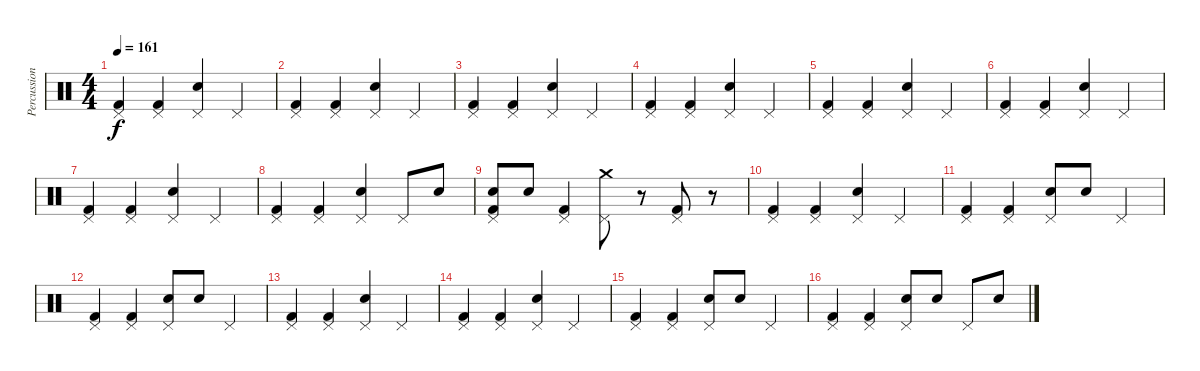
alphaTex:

\track ("Percussion" "Percussion") {instrument percussion}
\staff {score}
\articulation defaults
\ts (4 4)
\tempo 161
\clef neutral
\ks c
("Pedal Hi-Hat (hit)" "Kick (hit) 2").4{dy f} ("Pedal Hi-Hat (hit)" "Kick (hit) 2").4 ("Pedal Hi-Hat (hit)" "Electric Snare (hit)").4 "Pedal Hi-Hat (hit)".4 |
("Pedal Hi-Hat (hit)" "Kick (hit) 2").4 ("Pedal Hi-Hat (hit)" "Kick (hit) 2").4 ("Pedal Hi-Hat (hit)" "Electric Snare (hit)").4 "Pedal Hi-Hat (hit)".4 |
("Pedal Hi-Hat (hit)" "Kick (hit) 2").4 ("Pedal Hi-Hat (hit)" "Kick (hit) 2").4 ("Pedal Hi-Hat (hit)" "Electric Snare (hit)").4 "Pedal Hi-Hat (hit)".4 |
("Pedal Hi-Hat (hit)" "Kick (hit) 2").4 ("Pedal Hi-Hat (hit)" "Kick (hit) 2").4 ("Pedal Hi-Hat (hit)" "Electric Snare (hit)").4 "Pedal Hi-Hat (hit)".4 |
("Pedal Hi-Hat (hit)" "Kick (hit) 2").4 ("Pedal Hi-Hat (hit)" "Kick (hit) 2").4 ("Pedal Hi-Hat (hit)" "Electric Snare (hit)").4 "Pedal Hi-Hat (hit)".4 |
("Pedal Hi-Hat (hit)" "Kick (hit) 2").4 ("Pedal Hi-Hat (hit)" "Kick (hit) 2").4 ("Pedal Hi-Hat (hit)" "Electric Snare (hit)").4 "Pedal Hi-Hat (hit)".4 |
("Pedal Hi-Hat (hit)" "Kick (hit) 2").4 ("Pedal Hi-Hat (hit)" "Kick (hit) 2").4 ("Pedal Hi-Hat (hit)" "Electric Snare (hit)").4 "Pedal Hi-Hat (hit)".4 |
("Pedal Hi-Hat (hit)" "Kick (hit) 2").4 ("Pedal Hi-Hat (hit)" "Kick (hit) 2").4 ("Pedal Hi-Hat (hit)" "Electric Snare (hit)").4 "Pedal Hi-Hat (hit)".8 "Electric Snare (hit)".8 |
("Pedal Hi-Hat (hit)" "Electric Snare (hit)" "Kick (hit) 2").8 "Electric Snare (hit)".8 ("Pedal Hi-Hat (hit)" "Kick (hit) 2").4 ("Pedal Hi-Hat (hit)" "Crash medium (hit)").8 r.8 ("Pedal Hi-Hat (hit)" "Kick (hit) 2").8 r.8 |
("Pedal Hi-Hat (hit)" "Kick (hit) 2").4 ("Pedal Hi-Hat (hit)" "Kick (hit) 2").4 ("Pedal Hi-Hat (hit)" "Electric Snare (hit)").4 "Pedal Hi-Hat (hit)".4 |
("Pedal Hi-Hat (hit)" "Kick (hit) 2").4 ("Pedal Hi-Hat (hit)" "Kick (hit) 2").4 ("Pedal Hi-Hat (hit)" "Electric Snare (hit)").8 "Electric Snare (hit)".8 "Pedal Hi-Hat (hit)".4 |
("Pedal Hi-Hat (hit)" "Kick (hit) 2").4 ("Pedal Hi-Hat (hit)" "Kick (hit) 2").4 ("Pedal Hi-Hat (hit)" "Electric Snare (hit)").8 "Electric Snare (hit)".8 "Pedal Hi-Hat (hit)".4 |
("Pedal Hi-Hat (hit)" "Kick (hit) 2").4 ("Pedal Hi-Hat (hit)" "Kick (hit) 2").4 ("Pedal Hi-Hat (hit)" "Electric Snare (hit)").4 "Pedal Hi-Hat (hit)".4 |
("Pedal Hi-Hat (hit)" "Kick (hit) 2").4 ("Pedal Hi-Hat (hit)" "Kick (hit) 2").4 ("Pedal Hi-Hat (hit)" "Electric Snare (hit)").4 "Pedal Hi-Hat (hit)".4 |
("Pedal Hi-Hat (hit)" "Kick (hit) 2").4 ("Pedal Hi-Hat (hit)" "Kick (hit) 2").4 ("Pedal Hi-Hat (hit)" "Electric Snare (hit)").8 "Electric Snare (hit)".8 "Pedal Hi-Hat (hit)".4 |
("Pedal Hi-Hat (hit)" "Kick (hit) 2").4 ("Pedal Hi-Hat (hit)" "Kick (hit) 2").4 ("Pedal Hi-Hat (hit)" "Electric Snare (hit)").8 "Electric Snare (hit)".8 "Pedal Hi-Hat (hit)".8 "Electric Snare (hit)".8
